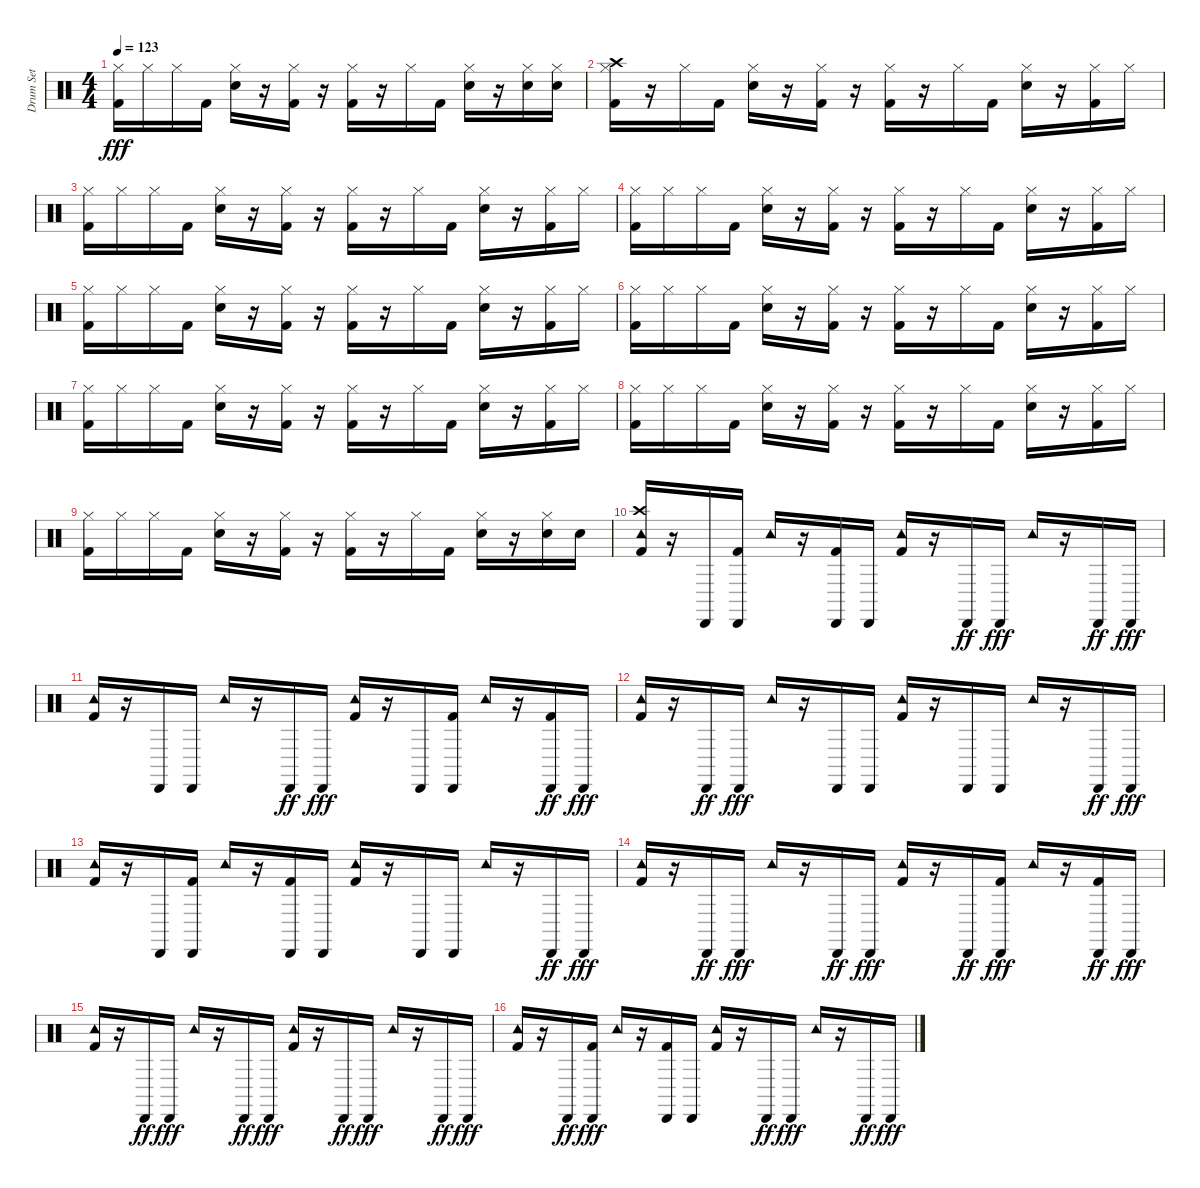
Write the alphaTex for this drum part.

\track ("Drum Set" "Drum Set") {instrument percussion}
\staff {score}
\articulation defaults
\ts (4 4)
\tempo 123
\clef neutral
\ks c
("Kick (hit) 2" "Hi-Hat (closed)").16{dy fff} "Hi-Hat (closed)".16 "Hi-Hat (closed)".16 "Kick (hit) 2".16 ("Snare (hit) 2" "Hi-Hat (closed)").16 r.16 ("Kick (hit) 2" "Hi-Hat (closed)").16 r.16 ("Kick (hit) 2" "Hi-Hat (closed)").16 r.16 "Hi-Hat (closed)".16 "Kick (hit) 2".16 ("Hi-Hat (closed)" "Snare (hit) 2").16 r.16 ("Hi-Hat (closed)" "Snare (hit) 2").16 ("Hi-Hat (closed)" "Snare (hit) 2").16 |
("Crash high (hit)" "Kick (hit) 2" "Hi-Hat (closed)").16 r.16 "Hi-Hat (closed)".16 "Kick (hit) 2".16 ("Hi-Hat (closed)" "Snare (hit) 2").16 r.16 ("Hi-Hat (closed)" "Kick (hit) 2").16 r.16 ("Hi-Hat (closed)" "Kick (hit) 2").16 r.16 "Hi-Hat (closed)".16 "Kick (hit) 2".16 ("Hi-Hat (closed)" "Snare (hit) 2").16 r.16 ("Hi-Hat (closed)" "Kick (hit) 2").16 "Hi-Hat (closed)".16 |
("Hi-Hat (closed)" "Kick (hit) 2").16 "Hi-Hat (closed)".16 "Hi-Hat (closed)".16 "Kick (hit) 2".16 ("Hi-Hat (closed)" "Snare (hit) 2").16 r.16 ("Hi-Hat (closed)" "Kick (hit) 2").16 r.16 ("Hi-Hat (closed)" "Kick (hit) 2").16 r.16 "Hi-Hat (closed)".16 "Kick (hit) 2".16 ("Hi-Hat (closed)" "Snare (hit) 2").16 r.16 ("Hi-Hat (closed)" "Kick (hit) 2").16 "Hi-Hat (closed)".16 |
("Hi-Hat (closed)" "Kick (hit) 2").16 "Hi-Hat (closed)".16 "Hi-Hat (closed)".16 "Kick (hit) 2".16 ("Hi-Hat (closed)" "Snare (hit) 2").16 r.16 ("Kick (hit) 2" "Hi-Hat (closed)").16 r.16 ("Kick (hit) 2" "Hi-Hat (closed)").16 r.16 "Hi-Hat (closed)".16 "Kick (hit) 2".16 ("Snare (hit) 2" "Hi-Hat (closed)").16 r.16 ("Kick (hit) 2" "Hi-Hat (closed)").16 "Hi-Hat (closed)".16 |
("Hi-Hat (closed)" "Kick (hit) 2").16 "Hi-Hat (closed)".16 "Hi-Hat (closed)".16 "Kick (hit) 2".16 ("Snare (hit) 2" "Hi-Hat (closed)").16 r.16 ("Hi-Hat (closed)" "Kick (hit) 2").16 r.16 ("Hi-Hat (closed)" "Kick (hit) 2").16 r.16 "Hi-Hat (closed)".16 "Kick (hit) 2".16 ("Snare (hit) 2" "Hi-Hat (closed)").16 r.16 ("Kick (hit) 2" "Hi-Hat (closed)").16 "Hi-Hat (closed)".16 |
("Kick (hit) 2" "Hi-Hat (closed)").16 "Hi-Hat (closed)".16 "Hi-Hat (closed)".16 "Kick (hit) 2".16 ("Hi-Hat (closed)" "Snare (hit) 2").16 r.16 ("Hi-Hat (closed)" "Kick (hit) 2").16 r.16 ("Hi-Hat (closed)" "Kick (hit) 2").16 r.16 "Hi-Hat (closed)".16 "Kick (hit) 2".16 ("Hi-Hat (closed)" "Snare (hit) 2").16 r.16 ("Hi-Hat (closed)" "Kick (hit) 2").16 "Hi-Hat (closed)".16 |
("Hi-Hat (closed)" "Kick (hit) 2").16 "Hi-Hat (closed)".16 "Hi-Hat (closed)".16 "Kick (hit) 2".16 ("Snare (hit) 2" "Hi-Hat (closed)").16 r.16 ("Hi-Hat (closed)" "Kick (hit) 2").16 r.16 ("Hi-Hat (closed)" "Kick (hit) 2").16 r.16 "Hi-Hat (closed)".16 "Kick (hit) 2".16 ("Hi-Hat (closed)" "Snare (hit) 2").16 r.16 ("Kick (hit) 2" "Hi-Hat (closed)").16 "Hi-Hat (closed)".16 |
("Hi-Hat (closed)" "Kick (hit) 2").16 "Hi-Hat (closed)".16 "Hi-Hat (closed)".16 "Kick (hit) 2".16 ("Snare (hit) 2" "Hi-Hat (closed)").16 r.16 ("Kick (hit) 2" "Hi-Hat (closed)").16 r.16 ("Kick (hit) 2" "Hi-Hat (closed)").16 r.16 "Hi-Hat (closed)".16 "Kick (hit) 2".16 ("Hi-Hat (closed)" "Snare (hit) 2").16 r.16 ("Kick (hit) 2" "Hi-Hat (closed)").16 "Hi-Hat (closed)".16 |
("Kick (hit) 2" "Hi-Hat (closed)").16 "Hi-Hat (closed)".16 "Hi-Hat (closed)".16 "Kick (hit) 2".16 ("Snare (hit) 2" "Hi-Hat (closed)").16 r.16 ("Kick (hit) 2" "Hi-Hat (closed)").16 r.16 ("Kick (hit) 2" "Hi-Hat (closed)").16 r.16 "Hi-Hat (closed)".16 "Kick (hit) 2".16 ("Snare (hit) 2" "Hi-Hat (closed)").16 r.16 ("Hi-Hat (closed)" "Snare (hit) 2").16 "Snare (hit) 2".16 |
("Crash high (hit)" "Kick (hit) 2" "Tambourine (hit)").16 r.16 "Cabasa (hit)".16 ("Cabasa (hit)" "Kick (hit) 2").16 "Tambourine (hit)".16 r.16 ("Cabasa (hit)" "Kick (hit) 2").16 "Cabasa (hit)".16 ("Kick (hit) 2" "Tambourine (hit)").16 r.16 "Cabasa (hit)".16{dy ff} "Cabasa (hit)".16{dy fff} "Tambourine (hit)".16 r.16 "Cabasa (hit)".16{dy ff} "Cabasa (hit)".16{dy fff} |
("Kick (hit) 2" "Tambourine (hit)").16 r.16 "Cabasa (hit)".16 "Cabasa (hit)".16 "Tambourine (hit)".16 r.16 "Cabasa (hit)".16{dy ff} "Cabasa (hit)".16{dy fff} ("Kick (hit) 2" "Tambourine (hit)").16 r.16 "Cabasa (hit)".16 ("Kick (hit) 2" "Cabasa (hit)").16 "Tambourine (hit)".16 r.16 ("Kick (hit) 2" "Cabasa (hit)").16{dy ff} "Cabasa (hit)".16{dy fff} |
("Tambourine (hit)" "Kick (hit) 2").16 r.16 "Cabasa (hit)".16{dy ff} "Cabasa (hit)".16{dy fff} "Tambourine (hit)".16 r.16 "Cabasa (hit)".16 "Cabasa (hit)".16 ("Kick (hit) 2" "Tambourine (hit)").16 r.16 "Cabasa (hit)".16 "Cabasa (hit)".16 "Tambourine (hit)".16 r.16 "Cabasa (hit)".16{dy ff} "Cabasa (hit)".16{dy fff} |
("Kick (hit) 2" "Tambourine (hit)").16 r.16 "Cabasa (hit)".16 ("Kick (hit) 2" "Cabasa (hit)").16 "Tambourine (hit)".16 r.16 ("Cabasa (hit)" "Kick (hit) 2").16 "Cabasa (hit)".16 ("Kick (hit) 2" "Tambourine (hit)").16 r.16 "Cabasa (hit)".16 "Cabasa (hit)".16 "Tambourine (hit)".16 r.16 "Cabasa (hit)".16{dy ff} "Cabasa (hit)".16{dy fff} |
("Tambourine (hit)" "Kick (hit) 2").16 r.16 "Cabasa (hit)".16{dy ff} "Cabasa (hit)".16{dy fff} "Tambourine (hit)".16 r.16 "Cabasa (hit)".16{dy ff} "Cabasa (hit)".16{dy fff} ("Tambourine (hit)" "Kick (hit) 2").16 r.16 "Cabasa (hit)".16{dy ff} ("Kick (hit) 2" "Cabasa (hit)").16{dy fff} "Tambourine (hit)".16 r.16 ("Cabasa (hit)" "Kick (hit) 2").16{dy ff} "Cabasa (hit)".16{dy fff} |
("Tambourine (hit)" "Kick (hit) 2").16 r.16 "Cabasa (hit)".16{dy ff} "Cabasa (hit)".16{dy fff} "Tambourine (hit)".16 r.16 "Cabasa (hit)".16{dy ff} "Cabasa (hit)".16{dy fff} ("Tambourine (hit)" "Kick (hit) 2").16 r.16 "Cabasa (hit)".16{dy ff} "Cabasa (hit)".16{dy fff} "Tambourine (hit)".16 r.16 "Cabasa (hit)".16{dy ff} "Cabasa (hit)".16{dy fff} |
("Tambourine (hit)" "Kick (hit) 2").16 r.16 "Cabasa (hit)".16{dy ff} ("Kick (hit) 2" "Cabasa (hit)").16{dy fff} "Tambourine (hit)".16 r.16 ("Kick (hit) 2" "Cabasa (hit)").16 "Cabasa (hit)".16 ("Tambourine (hit)" "Kick (hit) 2").16 r.16 "Cabasa (hit)".16{dy ff} "Cabasa (hit)".16{dy fff} "Tambourine (hit)".16 r.16 "Cabasa (hit)".16{dy ff} "Cabasa (hit)".16{dy fff}
